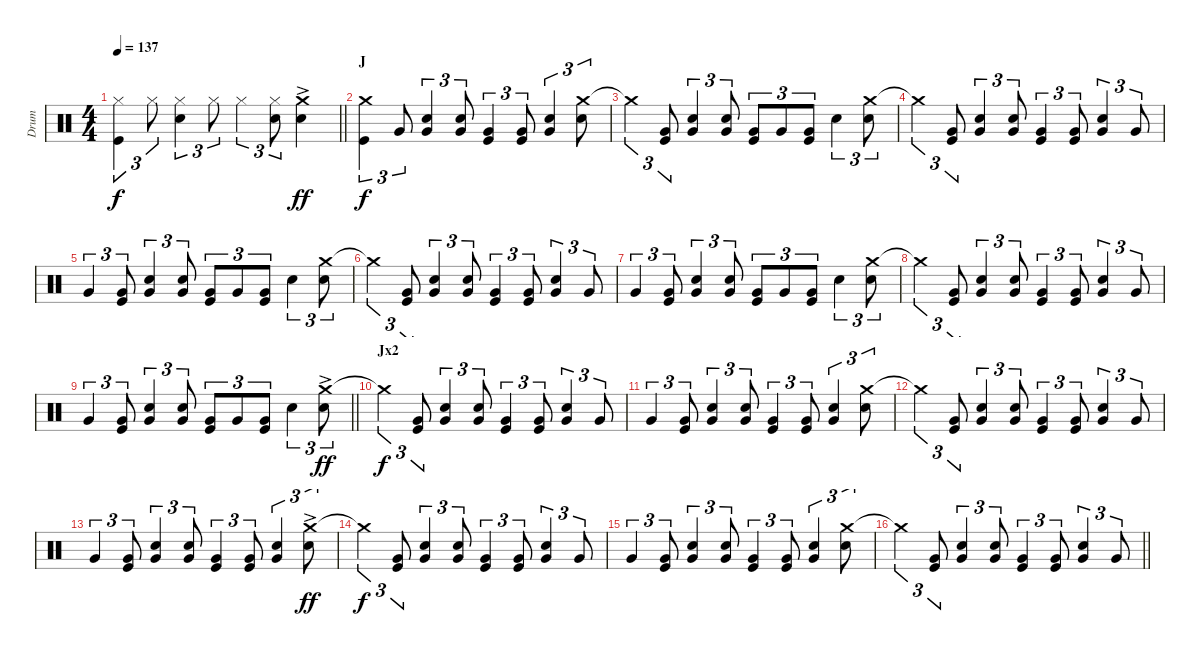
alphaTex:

\track ("Drum" "Drum") {instrument percussion}
\staff {score}
\articulation defaults
\ts (4 4)
\tempo 137
\clef neutral
\barLineRight lightlight
\ks c
("Hi-Hat (closed)" "Kick (hit)").4{tu (3 2) dy f} "Hi-Hat (closed)".8{tu (3 2)} ("Hi-Hat (closed)" "Snare (hit) 2").4{tu (3 2)} "Hi-Hat (closed)".8{tu (3 2)} "Hi-Hat (closed)".4{tu (3 2)} ("Hi-Hat (closed)" "Snare (hit)").8{tu (3 2)} ("Crash medium (hit)"{ac} "Snare (hit) 2"{ac}).4{dy ff} |
\section ("" "J")
("Crash medium (hit)" "Kick (hit)").4{tu (3 2) dy f} "Very Low Tom (hit)".8{tu (3 2)} ("Snare (hit) 2" "Very Low Tom (hit)").4{tu (3 2)} ("Snare (hit) 2" "Very Low Tom (hit)").8{tu (3 2)} ("Very Low Tom (hit)" "Kick (hit)").4{tu (3 2)} ("Very Low Tom (hit)" "Kick (hit)").8{tu (3 2)} ("Snare (hit) 2" "Very Low Tom (hit)").4{tu (3 2)} ("Crash medium (hit)" "Snare (hit) 2").8{tu (3 2)} |
"Crash medium (hit)"{t}.4{tu (3 2)} ("Very Low Tom (hit)" "Kick (hit)").8{tu (3 2)} ("Snare (hit) 2" "Very Low Tom (hit)").4{tu (3 2)} ("Snare (hit) 2" "Very Low Tom (hit)").8{tu (3 2)} ("Very Low Tom (hit)" "Kick (hit)").8{tu (3 2)} "Very Low Tom (hit)".8{tu (3 2)} ("Very Low Tom (hit)" "Kick (hit)").8{tu (3 2)} "Snare (hit) 2".4{tu (3 2)} ("Crash medium (hit)" "Snare (hit) 2").8{tu (3 2)} |
"Crash medium (hit)"{t}.4{tu (3 2)} ("Very Low Tom (hit)" "Kick (hit)").8{tu (3 2)} ("Snare (hit) 2" "Very Low Tom (hit)").4{tu (3 2)} ("Snare (hit) 2" "Very Low Tom (hit)").8{tu (3 2)} ("Very Low Tom (hit)" "Kick (hit)").4{tu (3 2)} ("Very Low Tom (hit)" "Kick (hit)").8{tu (3 2)} ("Snare (hit) 2" "Very Low Tom (hit)").4{tu (3 2)} "Very Low Tom (hit)".8{tu (3 2)} |
"Very Low Tom (hit)".4{tu (3 2)} ("Very Low Tom (hit)" "Kick (hit)").8{tu (3 2)} ("Snare (hit) 2" "Very Low Tom (hit)").4{tu (3 2)} ("Snare (hit) 2" "Very Low Tom (hit)").8{tu (3 2)} ("Very Low Tom (hit)" "Kick (hit)").8{tu (3 2)} "Very Low Tom (hit)".8{tu (3 2)} ("Very Low Tom (hit)" "Kick (hit)").8{tu (3 2)} "Snare (hit) 2".4{tu (3 2)} ("Crash medium (hit)" "Snare (hit) 2").8{tu (3 2)} |
"Crash medium (hit)"{t}.4{tu (3 2)} ("Very Low Tom (hit)" "Kick (hit)").8{tu (3 2)} ("Snare (hit) 2" "Very Low Tom (hit)").4{tu (3 2)} ("Snare (hit) 2" "Very Low Tom (hit)").8{tu (3 2)} ("Very Low Tom (hit)" "Kick (hit)").4{tu (3 2)} ("Very Low Tom (hit)" "Kick (hit)").8{tu (3 2)} ("Snare (hit) 2" "Very Low Tom (hit)").4{tu (3 2)} "Very Low Tom (hit)".8{tu (3 2)} |
"Very Low Tom (hit)".4{tu (3 2)} ("Very Low Tom (hit)" "Kick (hit)").8{tu (3 2)} ("Snare (hit) 2" "Very Low Tom (hit)").4{tu (3 2)} ("Snare (hit) 2" "Very Low Tom (hit)").8{tu (3 2)} ("Very Low Tom (hit)" "Kick (hit)").8{tu (3 2)} "Very Low Tom (hit)".8{tu (3 2)} ("Very Low Tom (hit)" "Kick (hit)").8{tu (3 2)} "Snare (hit) 2".4{tu (3 2)} ("Crash medium (hit)" "Snare (hit) 2").8{tu (3 2)} |
"Crash medium (hit)"{t}.4{tu (3 2)} ("Very Low Tom (hit)" "Kick (hit)").8{tu (3 2)} ("Snare (hit) 2" "Very Low Tom (hit)").4{tu (3 2)} ("Snare (hit) 2" "Very Low Tom (hit)").8{tu (3 2)} ("Very Low Tom (hit)" "Kick (hit)").4{tu (3 2)} ("Very Low Tom (hit)" "Kick (hit)").8{tu (3 2)} ("Snare (hit) 2" "Very Low Tom (hit)").4{tu (3 2)} "Very Low Tom (hit)".8{tu (3 2)} |
\barLineRight lightlight "Very Low Tom (hit)".4{tu (3 2)}
("Very Low Tom (hit)" "Kick (hit)").8{tu (3 2)} ("Snare (hit) 2" "Very Low Tom (hit)").4{tu (3 2)} ("Snare (hit) 2" "Very Low Tom (hit)").8{tu (3 2)} ("Very Low Tom (hit)" "Kick (hit)").8{tu (3 2)} "Very Low Tom (hit)".8{tu (3 2)} ("Very Low Tom (hit)" "Kick (hit)").8{tu (3 2)} "Snare (hit) 2".4{tu (3 2)} ("Crash medium (hit)"{ac} "Snare (hit) 2"{ac}).8{tu (3 2) dy ff} |
\section ("" "Jx2")
"Crash medium (hit)"{t}.4{tu (3 2) dy f} ("Very Low Tom (hit)" "Kick (hit)").8{tu (3 2)} ("Snare (hit) 2" "Very Low Tom (hit)").4{tu (3 2)} ("Snare (hit) 2" "Very Low Tom (hit)").8{tu (3 2)} ("Very Low Tom (hit)" "Kick (hit)").4{tu (3 2)} ("Very Low Tom (hit)" "Kick (hit)").8{tu (3 2)} ("Snare (hit) 2" "Very Low Tom (hit)").4{tu (3 2)} "Very Low Tom (hit)".8{tu (3 2)} |
"Very Low Tom (hit)".4{tu (3 2)} ("Very Low Tom (hit)" "Kick (hit)").8{tu (3 2)} ("Snare (hit) 2" "Very Low Tom (hit)").4{tu (3 2)} ("Snare (hit) 2" "Very Low Tom (hit)").8{tu (3 2)} ("Very Low Tom (hit)" "Kick (hit)").4{tu (3 2)} ("Very Low Tom (hit)" "Kick (hit)").8{tu (3 2)} ("Snare (hit) 2" "Very Low Tom (hit)").4{tu (3 2)} ("Crash medium (hit)" "Snare (hit) 2").8{tu (3 2)} |
"Crash medium (hit)"{t}.4{tu (3 2)} ("Very Low Tom (hit)" "Kick (hit)").8{tu (3 2)} ("Snare (hit) 2" "Very Low Tom (hit)").4{tu (3 2)} ("Snare (hit) 2" "Very Low Tom (hit)").8{tu (3 2)} ("Very Low Tom (hit)" "Kick (hit)").4{tu (3 2)} ("Very Low Tom (hit)" "Kick (hit)").8{tu (3 2)} ("Snare (hit) 2" "Very Low Tom (hit)").4{tu (3 2)} "Very Low Tom (hit)".8{tu (3 2)} |
"Very Low Tom (hit)".4{tu (3 2)} ("Very Low Tom (hit)" "Kick (hit)").8{tu (3 2)} ("Snare (hit) 2" "Very Low Tom (hit)").4{tu (3 2)} ("Snare (hit) 2" "Very Low Tom (hit)").8{tu (3 2)} ("Very Low Tom (hit)" "Kick (hit)").4{tu (3 2)} ("Very Low Tom (hit)" "Kick (hit)").8{tu (3 2)} ("Snare (hit) 2" "Very Low Tom (hit)").4{tu (3 2)} ("Crash medium (hit)"{ac} "Snare (hit) 2"{ac}).8{tu (3 2) dy ff} |
"Crash medium (hit)"{t}.4{tu (3 2) dy f} ("Very Low Tom (hit)" "Kick (hit)").8{tu (3 2)} ("Snare (hit) 2" "Very Low Tom (hit)").4{tu (3 2)} ("Snare (hit) 2" "Very Low Tom (hit)").8{tu (3 2)} ("Very Low Tom (hit)" "Kick (hit)").4{tu (3 2)} ("Very Low Tom (hit)" "Kick (hit)").8{tu (3 2)} ("Snare (hit) 2" "Very Low Tom (hit)").4{tu (3 2)} "Very Low Tom (hit)".8{tu (3 2)} |
"Very Low Tom (hit)".4{tu (3 2)} ("Very Low Tom (hit)" "Kick (hit)").8{tu (3 2)} ("Snare (hit) 2" "Very Low Tom (hit)").4{tu (3 2)} ("Snare (hit) 2" "Very Low Tom (hit)").8{tu (3 2)} ("Very Low Tom (hit)" "Kick (hit)").4{tu (3 2)} ("Very Low Tom (hit)" "Kick (hit)").8{tu (3 2)} ("Snare (hit) 2" "Very Low Tom (hit)").4{tu (3 2)} ("Crash medium (hit)" "Snare (hit) 2").8{tu (3 2)} |
\barLineRight lightlight "Crash medium (hit)"{t}.4{tu (3 2)}
("Very Low Tom (hit)" "Kick (hit)").8{tu (3 2)} ("Snare (hit) 2" "Very Low Tom (hit)").4{tu (3 2)} ("Snare (hit) 2" "Very Low Tom (hit)").8{tu (3 2)} ("Very Low Tom (hit)" "Kick (hit)").4{tu (3 2)} ("Very Low Tom (hit)" "Kick (hit)").8{tu (3 2)} ("Snare (hit) 2" "Very Low Tom (hit)").4{tu (3 2)} "Very Low Tom (hit)".8{tu (3 2)}
